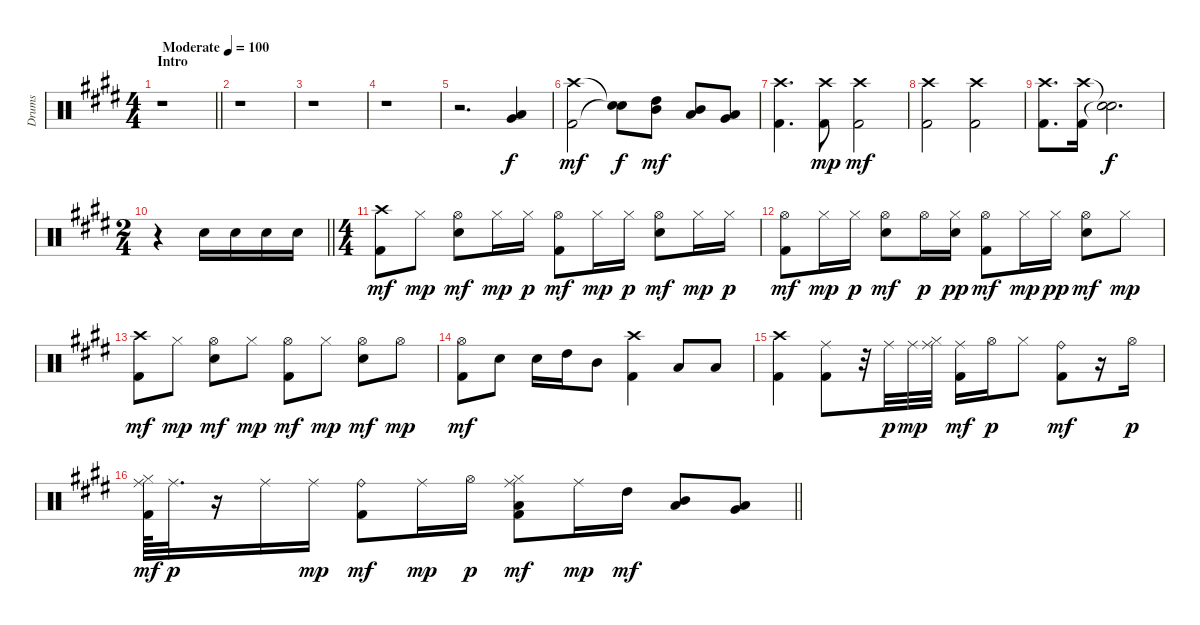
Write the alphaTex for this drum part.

\track ("Drums" "Drums") {instrument percussion}
\staff {score}
\articulation defaults
\ts (4 4)
\section ("" "Intro")
\tempo (100 "Moderate")
\clef neutral
\barLineRight lightlight
\ks e
r.1{dy f} |
r.1 |
r.1 |
r.1 |
r.2{d} ("Very Low Tom (hit)" "Low Floor Tom (hit)").4 |
("Crash high (hit)" "Kick (hit) 2").2{dy mf} ("Snare (hit)"{t} "Snare (hit)"{t}).8{dy f} ("High Tom (hit)" "Mid Tom (hit)").8{dy mf} ("Mid Tom (hit)" "Low Tom (hit)").8 ("Low Tom (hit)" "Very Low Tom (hit)").8 |
("Crash high (hit)" "Kick (hit) 2").4{d} ("Crash high (hit)" "Kick (hit) 2").8{dy mp} ("Crash high (hit)" "Kick (hit) 2").2{dy mf} |
("Crash high (hit)" "Kick (hit) 2").2 ("Crash high (hit)" "Kick (hit) 2").2 |
("Crash high (hit)" "Kick (hit) 2").8{d} ("Crash high (hit)" "Kick (hit) 2").16 ("Snare (hit)"{t} "Snare (hit)"{t}).2{d dy f} |
\ts (2 4)
\barLineRight lightlight
r.4 "Snare (hit) 2".16 "Snare (hit) 2".16 "Snare (hit) 2".16 "Snare (hit) 2".16 |
\ts (4 4)
("Crash high (hit)" "Kick (hit) 2").8{dy mf} "Hi-Hat (closed)".8{dy mp} ("Hi-Hat (open)" "Snare (hit) 2").8{dy mf} "Hi-Hat (closed)".16{dy mp} "Hi-Hat (closed)".16{dy p} ("Hi-Hat (open)" "Kick (hit) 2").8{dy mf} "Hi-Hat (closed)".16{dy mp} "Hi-Hat (closed)".16{dy p} ("Hi-Hat (open)" "Snare (hit) 2").8{dy mf} "Hi-Hat (closed)".16{dy mp} "Hi-Hat (closed)".16{dy p} |
("Hi-Hat (open)" "Kick (hit) 2").8{dy mf} "Hi-Hat (closed)".16{dy mp} "Hi-Hat (closed)".16{dy p} ("Hi-Hat (open)" "Snare (hit) 2").8{dy mf} "Hi-Hat (open)".16{dy p} ("Hi-Hat (closed)" "Snare (hit) 2").16{dy pp} ("Hi-Hat (open)" "Kick (hit) 2").8{dy mf} "Hi-Hat (closed)".16{dy mp} "Hi-Hat (closed)".16{dy pp} ("Hi-Hat (open)" "Snare (hit) 2").8{dy mf} "Hi-Hat (closed)".8{dy mp} |
("Crash high (hit)" "Kick (hit) 2").8{dy mf} "Hi-Hat (closed)".8{dy mp} ("Hi-Hat (open)" "Snare (hit) 2").8{dy mf} "Hi-Hat (closed)".8{dy mp} ("Hi-Hat (open)" "Kick (hit) 2").8{dy mf} "Hi-Hat (closed)".8{dy mp} ("Hi-Hat (open)" "Snare (hit) 2").8{dy mf} "Hi-Hat (open)".8{dy mp} |
("Hi-Hat (open)" "Kick (hit) 2").8{dy mf} "Snare (hit) 2".8 "Snare (hit) 2".16 "High Tom (hit)".16 "Mid Tom (hit)".8 ("Crash high (hit)" "Kick (hit) 2").4 "Low Tom (hit)".8 "Low Floor Tom (hit)".8 |
("Crash high (hit)" "Kick (hit) 2").4 ("Ride (middle)" "Kick (hit) 2").8 r.32 "Ride (middle)".32{dy p} "Ride (middle)".32{dy mp} ("Ride (middle)" "Hi-Hat (closed)").32 ("Ride (middle)" "Kick (hit) 2").16{dy mf} "Hi-Hat (open)".16{dy p} "Hi-Hat (closed)".8 ("Ride (bell)" "Kick (hit) 2").8{dy mf} r.16 "Hi-Hat (open)".16{dy p} |
\barLineRight lightlight
("Ride (middle)" "Hi-Hat (closed)" "Kick (hit) 2").64{dy mf} "Ride (middle)".32{d dy p} r.16 "Ride (middle)".16 "Ride (middle)".16{dy mp} ("Ride (bell)" "Kick (hit) 2").8{dy mf} "Ride (middle)".16{dy mp} "Hi-Hat (open)".16{dy p} ("Ride (middle)" "Hi-Hat (closed)" "Low Tom (hit)" "Kick (hit) 2").8{dy mf} "Ride (middle)".16{dy mp} "High Tom (hit)".16{dy mf} ("Mid Tom (hit)" "Low Tom (hit)").8 ("Very Low Tom (hit)" "Low Floor Tom (hit)").8
